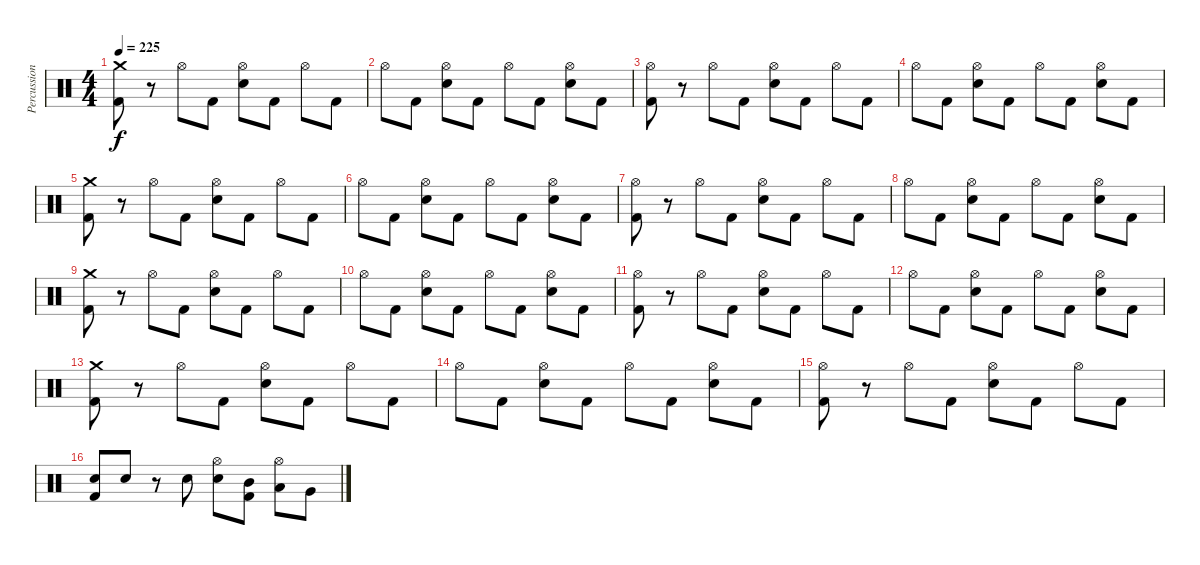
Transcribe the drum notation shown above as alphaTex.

\track ("Percussion" "Percussion") {instrument percussion}
\staff {score}
\articulation defaults
\ts (4 4)
\tempo 225
\clef neutral
\ks c
("Crash medium (hit)" "Kick (hit) 2").8{dy f} r.8 "Hi-Hat (open)".8 "Kick (hit) 2".8 ("Hi-Hat (open)" "Electric Snare (hit)").8 "Kick (hit) 2".8 "Hi-Hat (open)".8 "Kick (hit) 2".8 |
"Hi-Hat (open)".8 "Kick (hit) 2".8 ("Hi-Hat (open)" "Electric Snare (hit)").8 "Kick (hit) 2".8 "Hi-Hat (open)".8 "Kick (hit) 2".8 ("Hi-Hat (open)" "Electric Snare (hit)").8 "Kick (hit) 2".8 |
("Hi-Hat (open)" "Kick (hit) 2").8 r.8 "Hi-Hat (open)".8 "Kick (hit) 2".8 ("Hi-Hat (open)" "Electric Snare (hit)").8 "Kick (hit) 2".8 "Hi-Hat (open)".8 "Kick (hit) 2".8 |
"Hi-Hat (open)".8 "Kick (hit) 2".8 ("Hi-Hat (open)" "Electric Snare (hit)").8 "Kick (hit) 2".8 "Hi-Hat (open)".8 "Kick (hit) 2".8 ("Hi-Hat (open)" "Electric Snare (hit)").8 "Kick (hit) 2".8 |
("Crash medium (hit)" "Kick (hit) 2").8 r.8 "Hi-Hat (open)".8 "Kick (hit) 2".8 ("Hi-Hat (open)" "Electric Snare (hit)").8 "Kick (hit) 2".8 "Hi-Hat (open)".8 "Kick (hit) 2".8 |
"Hi-Hat (open)".8 "Kick (hit) 2".8 ("Hi-Hat (open)" "Electric Snare (hit)").8 "Kick (hit) 2".8 "Hi-Hat (open)".8 "Kick (hit) 2".8 ("Hi-Hat (open)" "Electric Snare (hit)").8 "Kick (hit) 2".8 |
("Hi-Hat (open)" "Kick (hit) 2").8 r.8 "Hi-Hat (open)".8 "Kick (hit) 2".8 ("Hi-Hat (open)" "Electric Snare (hit)").8 "Kick (hit) 2".8 "Hi-Hat (open)".8 "Kick (hit) 2".8 |
"Hi-Hat (open)".8 "Kick (hit) 2".8 ("Hi-Hat (open)" "Electric Snare (hit)").8 "Kick (hit) 2".8 "Hi-Hat (open)".8 "Kick (hit) 2".8 ("Hi-Hat (open)" "Electric Snare (hit)").8 "Kick (hit) 2".8 |
("Crash medium (hit)" "Kick (hit) 2").8 r.8 "Hi-Hat (open)".8 "Kick (hit) 2".8 ("Hi-Hat (open)" "Electric Snare (hit)").8 "Kick (hit) 2".8 "Hi-Hat (open)".8 "Kick (hit) 2".8 |
"Hi-Hat (open)".8 "Kick (hit) 2".8 ("Hi-Hat (open)" "Electric Snare (hit)").8 "Kick (hit) 2".8 "Hi-Hat (open)".8 "Kick (hit) 2".8 ("Hi-Hat (open)" "Electric Snare (hit)").8 "Kick (hit) 2".8 |
("Hi-Hat (open)" "Kick (hit) 2").8 r.8 "Hi-Hat (open)".8 "Kick (hit) 2".8 ("Hi-Hat (open)" "Electric Snare (hit)").8 "Kick (hit) 2".8 "Hi-Hat (open)".8 "Kick (hit) 2".8 |
"Hi-Hat (open)".8 "Kick (hit) 2".8 ("Hi-Hat (open)" "Electric Snare (hit)").8 "Kick (hit) 2".8 "Hi-Hat (open)".8 "Kick (hit) 2".8 ("Hi-Hat (open)" "Electric Snare (hit)").8 "Kick (hit) 2".8 |
("Crash medium (hit)" "Kick (hit) 2").8 r.8 "Hi-Hat (open)".8 "Kick (hit) 2".8 ("Hi-Hat (open)" "Electric Snare (hit)").8 "Kick (hit) 2".8 "Hi-Hat (open)".8 "Kick (hit) 2".8 |
"Hi-Hat (open)".8 "Kick (hit) 2".8 ("Hi-Hat (open)" "Electric Snare (hit)").8 "Kick (hit) 2".8 "Hi-Hat (open)".8 "Kick (hit) 2".8 ("Hi-Hat (open)" "Electric Snare (hit)").8 "Kick (hit) 2".8 |
("Hi-Hat (open)" "Kick (hit) 2").8 r.8 "Hi-Hat (open)".8 "Kick (hit) 2".8 ("Hi-Hat (open)" "Electric Snare (hit)").8 "Kick (hit) 2".8 "Hi-Hat (open)".8 "Kick (hit) 2".8 |
("Electric Snare (hit)" "Kick (hit) 2").8 "Electric Snare (hit)".8 r.8 "Electric Snare (hit)".8 ("Hi-Hat (open)" "Electric Snare (hit)").8 ("Mid Tom (hit)" "Kick (hit) 2").8 ("Hi-Hat (open)" "Low Tom (hit)").8 "Very Low Tom (hit)".8
